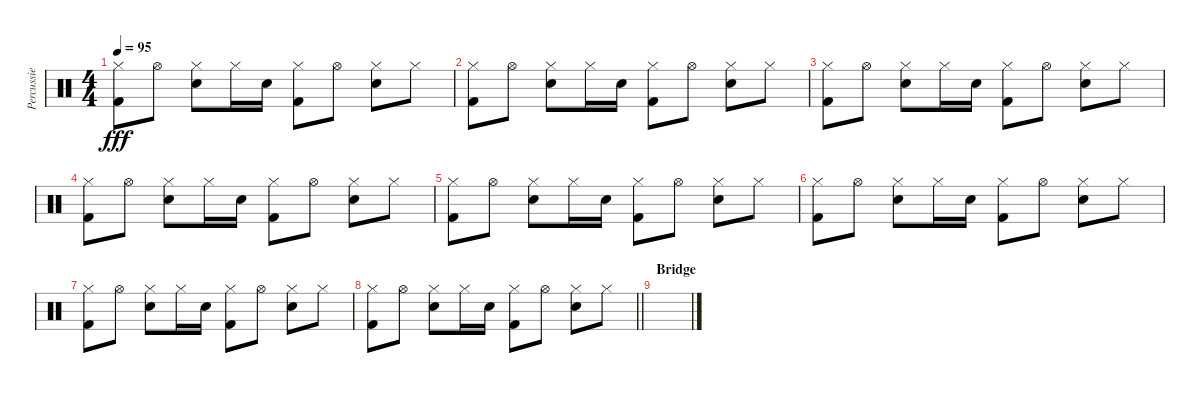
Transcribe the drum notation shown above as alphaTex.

\track ("Percussie" "Percussie") {instrument percussion}
\staff {score}
\articulation defaults
\ts (4 4)
\tempo 95
\clef neutral
\ks c
("Hi-Hat (closed)" "Kick (hit) 2").8{dy fff} "Hi-Hat (open)".8 ("Hi-Hat (closed)" "Snare (hit) 2").8 "Hi-Hat (closed)".16 "Snare (hit) 2".16 ("Hi-Hat (closed)" "Kick (hit) 2").8 "Hi-Hat (open)".8 ("Hi-Hat (closed)" "Snare (hit) 2").8 "Hi-Hat (closed)".8 |
("Hi-Hat (closed)" "Kick (hit) 2").8 "Hi-Hat (open)".8 ("Hi-Hat (closed)" "Snare (hit) 2").8 "Hi-Hat (closed)".16 "Snare (hit) 2".16 ("Hi-Hat (closed)" "Kick (hit) 2").8 "Hi-Hat (open)".8 ("Hi-Hat (closed)" "Snare (hit) 2").8 "Hi-Hat (closed)".8 |
("Hi-Hat (closed)" "Kick (hit) 2").8 "Hi-Hat (open)".8 ("Hi-Hat (closed)" "Snare (hit) 2").8 "Hi-Hat (closed)".16 "Snare (hit) 2".16 ("Hi-Hat (closed)" "Kick (hit) 2").8 "Hi-Hat (open)".8 ("Hi-Hat (closed)" "Snare (hit) 2").8 "Hi-Hat (closed)".8 |
("Hi-Hat (closed)" "Kick (hit) 2").8 "Hi-Hat (open)".8 ("Hi-Hat (closed)" "Snare (hit) 2").8 "Hi-Hat (closed)".16 "Snare (hit) 2".16 ("Hi-Hat (closed)" "Kick (hit) 2").8 "Hi-Hat (open)".8 ("Hi-Hat (closed)" "Snare (hit) 2").8 "Hi-Hat (closed)".8 |
("Hi-Hat (closed)" "Kick (hit) 2").8 "Hi-Hat (open)".8 ("Hi-Hat (closed)" "Snare (hit) 2").8 "Hi-Hat (closed)".16 "Snare (hit) 2".16 ("Hi-Hat (closed)" "Kick (hit) 2").8 "Hi-Hat (open)".8 ("Hi-Hat (closed)" "Snare (hit) 2").8 "Hi-Hat (closed)".8 |
("Hi-Hat (closed)" "Kick (hit) 2").8 "Hi-Hat (open)".8 ("Hi-Hat (closed)" "Snare (hit) 2").8 "Hi-Hat (closed)".16 "Snare (hit) 2".16 ("Hi-Hat (closed)" "Kick (hit) 2").8 "Hi-Hat (open)".8 ("Hi-Hat (closed)" "Snare (hit) 2").8 "Hi-Hat (closed)".8 |
("Hi-Hat (closed)" "Kick (hit) 2").8 "Hi-Hat (open)".8 ("Hi-Hat (closed)" "Snare (hit) 2").8 "Hi-Hat (closed)".16 "Snare (hit) 2".16 ("Hi-Hat (closed)" "Kick (hit) 2").8 "Hi-Hat (open)".8 ("Hi-Hat (closed)" "Snare (hit) 2").8 "Hi-Hat (closed)".8 |
\barLineRight lightlight
("Hi-Hat (closed)" "Kick (hit) 2").8 "Hi-Hat (open)".8 ("Hi-Hat (closed)" "Snare (hit) 2").8 "Hi-Hat (closed)".16 "Snare (hit) 2".16 ("Hi-Hat (closed)" "Kick (hit) 2").8 "Hi-Hat (open)".8 ("Hi-Hat (closed)" "Snare (hit) 2").8 "Hi-Hat (closed)".8 |
\section ("" "Bridge")
